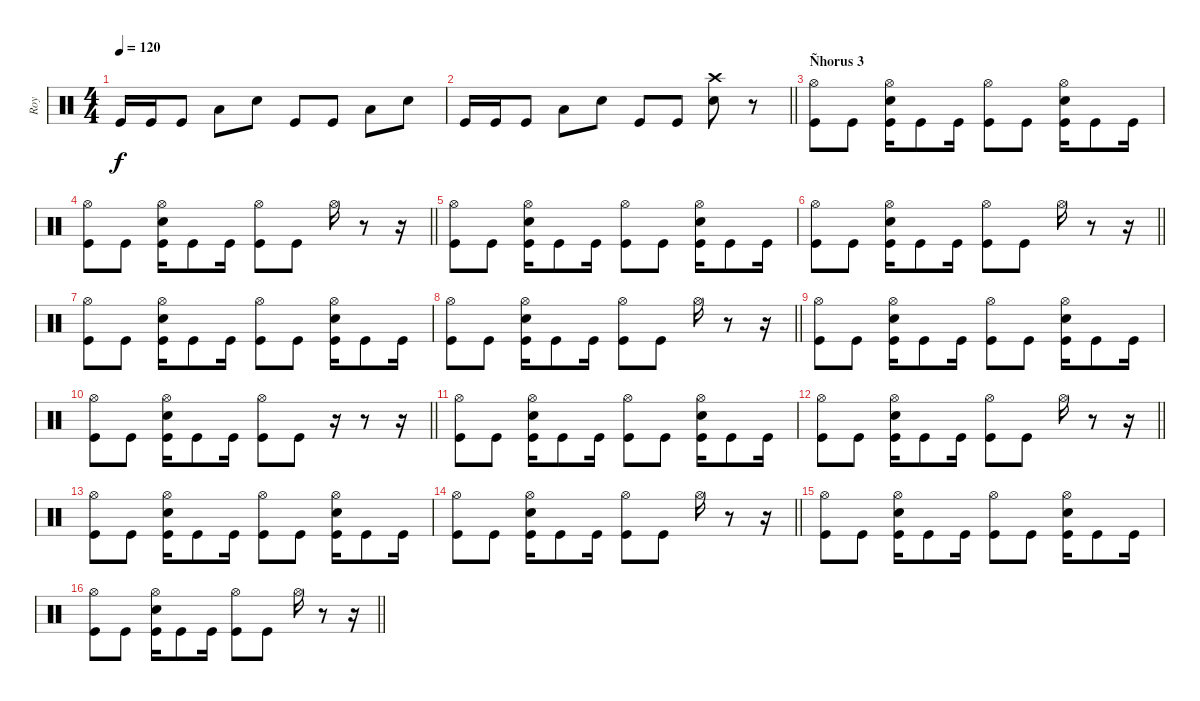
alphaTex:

\track ("Roy" "Roy") {instrument percussion}
\staff {score}
\articulation defaults
\ts (4 4)
\tempo 120
\clef neutral
\ks c "Kick (hit)".16{dy f} "Kick (hit)".16 "Kick (hit)".8 "Low Tom (hit)".8 "Metronome (bell)".8 "Kick (hit)".8 "Kick (hit)".8 "Low Tom (hit)".8 "Metronome (bell)".8
|
\barLineRight lightlight "Kick (hit)".16 "Kick (hit)".16 "Kick (hit)".8 "Low Tom (hit)".8 "Metronome (bell)".8 "Kick (hit)".8 "Kick (hit)".8
("Crash high (hit)" "Electric Snare (hit)").8 r.8 |
\section ("" "Ñhorus 3")
("Hi-Hat (open)" "Kick (hit)").8 "Kick (hit)".8 ("Hi-Hat (open)" "Electric Snare (hit)" "Kick (hit)").16 "Kick (hit)".8 "Kick (hit)".16 ("Hi-Hat (open)" "Kick (hit)").8 "Kick (hit)".8 ("Hi-Hat (open)" "Electric Snare (hit)" "Kick (hit)").16 "Kick (hit)".8 "Kick (hit)".16 |
\barLineRight lightlight
("Hi-Hat (open)" "Kick (hit)").8 "Kick (hit)".8 ("Hi-Hat (open)" "Electric Snare (hit)" "Kick (hit)").16 "Kick (hit)".8 "Kick (hit)".16 ("Hi-Hat (open)" "Kick (hit)").8 "Kick (hit)".8 "Hi-Hat (open)".16 r.8 r.16 |
("Hi-Hat (open)" "Kick (hit)").8 "Kick (hit)".8 ("Hi-Hat (open)" "Electric Snare (hit)" "Kick (hit)").16 "Kick (hit)".8 "Kick (hit)".16 ("Hi-Hat (open)" "Kick (hit)").8 "Kick (hit)".8 ("Hi-Hat (open)" "Electric Snare (hit)" "Kick (hit)").16 "Kick (hit)".8 "Kick (hit)".16 |
\barLineRight lightlight
("Hi-Hat (open)" "Kick (hit)").8 "Kick (hit)".8 ("Hi-Hat (open)" "Electric Snare (hit)" "Kick (hit)").16 "Kick (hit)".8 "Kick (hit)".16 ("Hi-Hat (open)" "Kick (hit)").8 "Kick (hit)".8 "Hi-Hat (open)".16 r.8 r.16 |
("Hi-Hat (open)" "Kick (hit)").8 "Kick (hit)".8 ("Hi-Hat (open)" "Electric Snare (hit)" "Kick (hit)").16 "Kick (hit)".8 "Kick (hit)".16 ("Hi-Hat (open)" "Kick (hit)").8 "Kick (hit)".8 ("Hi-Hat (open)" "Electric Snare (hit)" "Kick (hit)").16 "Kick (hit)".8 "Kick (hit)".16 |
\barLineRight lightlight
("Hi-Hat (open)" "Kick (hit)").8 "Kick (hit)".8 ("Hi-Hat (open)" "Electric Snare (hit)" "Kick (hit)").16 "Kick (hit)".8 "Kick (hit)".16 ("Hi-Hat (open)" "Kick (hit)").8 "Kick (hit)".8 "Hi-Hat (open)".16 r.8 r.16 |
("Hi-Hat (open)" "Kick (hit)").8 "Kick (hit)".8 ("Hi-Hat (open)" "Electric Snare (hit)" "Kick (hit)").16 "Kick (hit)".8 "Kick (hit)".16 ("Hi-Hat (open)" "Kick (hit)").8 "Kick (hit)".8 ("Hi-Hat (open)" "Electric Snare (hit)" "Kick (hit)").16 "Kick (hit)".8 "Kick (hit)".16 |
\barLineRight lightlight
("Hi-Hat (open)" "Kick (hit)").8 "Kick (hit)".8 ("Hi-Hat (open)" "Electric Snare (hit)" "Kick (hit)").16 "Kick (hit)".8 "Kick (hit)".16 ("Hi-Hat (open)" "Kick (hit)").8 "Kick (hit)".8 r.16 r.8 r.16 |
("Hi-Hat (open)" "Kick (hit)").8 "Kick (hit)".8 ("Hi-Hat (open)" "Electric Snare (hit)" "Kick (hit)").16 "Kick (hit)".8 "Kick (hit)".16 ("Hi-Hat (open)" "Kick (hit)").8 "Kick (hit)".8 ("Hi-Hat (open)" "Electric Snare (hit)" "Kick (hit)").16 "Kick (hit)".8 "Kick (hit)".16 |
\barLineRight lightlight
("Hi-Hat (open)" "Kick (hit)").8 "Kick (hit)".8 ("Hi-Hat (open)" "Electric Snare (hit)" "Kick (hit)").16 "Kick (hit)".8 "Kick (hit)".16 ("Hi-Hat (open)" "Kick (hit)").8 "Kick (hit)".8 "Hi-Hat (open)".16 r.8 r.16 |
("Hi-Hat (open)" "Kick (hit)").8 "Kick (hit)".8 ("Hi-Hat (open)" "Electric Snare (hit)" "Kick (hit)").16 "Kick (hit)".8 "Kick (hit)".16 ("Hi-Hat (open)" "Kick (hit)").8 "Kick (hit)".8 ("Hi-Hat (open)" "Electric Snare (hit)" "Kick (hit)").16 "Kick (hit)".8 "Kick (hit)".16 |
\barLineRight lightlight
("Hi-Hat (open)" "Kick (hit)").8 "Kick (hit)".8 ("Hi-Hat (open)" "Electric Snare (hit)" "Kick (hit)").16 "Kick (hit)".8 "Kick (hit)".16 ("Hi-Hat (open)" "Kick (hit)").8 "Kick (hit)".8 "Hi-Hat (open)".16 r.8 r.16 |
("Hi-Hat (open)" "Kick (hit)").8 "Kick (hit)".8 ("Hi-Hat (open)" "Electric Snare (hit)" "Kick (hit)").16 "Kick (hit)".8 "Kick (hit)".16 ("Hi-Hat (open)" "Kick (hit)").8 "Kick (hit)".8 ("Hi-Hat (open)" "Electric Snare (hit)" "Kick (hit)").16 "Kick (hit)".8 "Kick (hit)".16 |
\barLineRight lightlight
("Hi-Hat (open)" "Kick (hit)").8 "Kick (hit)".8 ("Hi-Hat (open)" "Electric Snare (hit)" "Kick (hit)").16 "Kick (hit)".8 "Kick (hit)".16 ("Hi-Hat (open)" "Kick (hit)").8 "Kick (hit)".8 "Hi-Hat (open)".16 r.8 r.16
